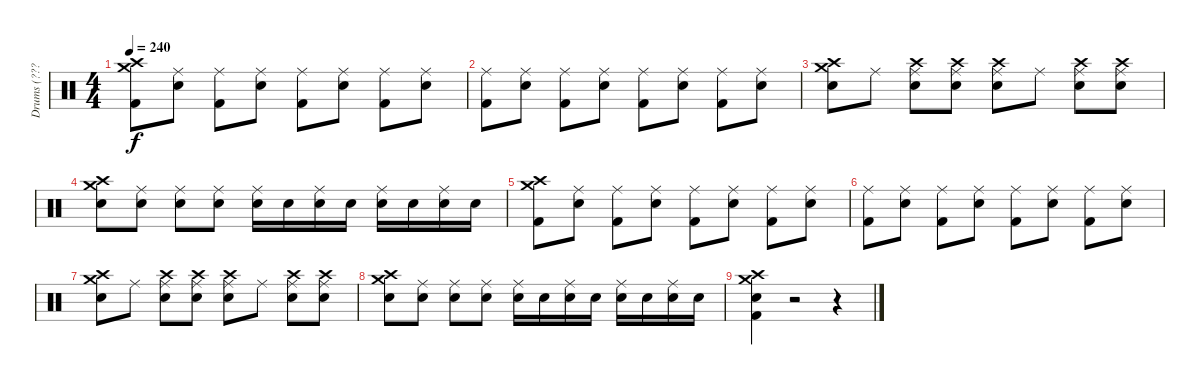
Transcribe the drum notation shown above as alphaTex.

\track ("Drums (????)" "Drums (???") {instrument percussion}
\staff {score}
\articulation defaults
\ts (4 4)
\tempo 240
\clef neutral
\ks c
("Crash medium (hit)" "Crash high (hit)" "Kick (hit) 2").8{dy f} ("Ride (middle)" "Snare (hit) 2").8 ("Ride (middle)" "Kick (hit) 2").8 ("Ride (middle)" "Snare (hit) 2").8 ("Ride (middle)" "Kick (hit) 2").8 ("Ride (middle)" "Snare (hit) 2").8 ("Ride (middle)" "Kick (hit) 2").8 ("Ride (middle)" "Snare (hit) 2").8 |
("Ride (middle)" "Kick (hit) 2").8 ("Ride (middle)" "Snare (hit) 2").8 ("Ride (middle)" "Kick (hit) 2").8 ("Ride (middle)" "Snare (hit) 2").8 ("Ride (middle)" "Kick (hit) 2").8 ("Ride (middle)" "Snare (hit) 2").8 ("Ride (middle)" "Kick (hit) 2").8 ("Ride (middle)" "Snare (hit) 2").8 |
("Crash medium (hit)" "Crash high (hit)" "Snare (hit) 2").8 "Ride (middle)".8 ("Ride (middle)" "Crash high (hit)" "Snare (hit) 2").8 ("Ride (middle)" "Crash high (hit)" "Snare (hit) 2").8 ("Ride (middle)" "Crash high (hit)" "Snare (hit) 2").8 "Ride (middle)".8 ("Ride (middle)" "Crash high (hit)" "Snare (hit) 2").8 ("Ride (middle)" "Crash high (hit)" "Snare (hit) 2").8 |
("Crash medium (hit)" "Crash high (hit)" "Snare (hit) 2").8 ("Ride (middle)" "Snare (hit) 2").8 ("Ride (middle)" "Snare (hit) 2").8 ("Ride (middle)" "Snare (hit) 2").8 ("Ride (middle)" "Snare (hit) 2").16 "Snare (hit) 2".16 ("Ride (middle)" "Snare (hit) 2").16 "Snare (hit) 2".16 ("Ride (middle)" "Snare (hit) 2").16 "Snare (hit) 2".16 ("Ride (middle)" "Snare (hit) 2").16 "Snare (hit) 2".16 |
("Crash medium (hit)" "Crash high (hit)" "Kick (hit) 2").8 ("Ride (middle)" "Snare (hit) 2").8 ("Ride (middle)" "Kick (hit) 2").8 ("Ride (middle)" "Snare (hit) 2").8 ("Ride (middle)" "Kick (hit) 2").8 ("Ride (middle)" "Snare (hit) 2").8 ("Ride (middle)" "Kick (hit) 2").8 ("Ride (middle)" "Snare (hit) 2").8 |
("Ride (middle)" "Kick (hit) 2").8 ("Ride (middle)" "Snare (hit) 2").8 ("Ride (middle)" "Kick (hit) 2").8 ("Ride (middle)" "Snare (hit) 2").8 ("Ride (middle)" "Kick (hit) 2").8 ("Ride (middle)" "Snare (hit) 2").8 ("Ride (middle)" "Kick (hit) 2").8 ("Ride (middle)" "Snare (hit) 2").8 |
("Crash medium (hit)" "Crash high (hit)" "Snare (hit) 2").8 "Ride (middle)".8 ("Ride (middle)" "Crash high (hit)" "Snare (hit) 2").8 ("Ride (middle)" "Crash high (hit)" "Snare (hit) 2").8 ("Ride (middle)" "Crash high (hit)" "Snare (hit) 2").8 "Ride (middle)".8 ("Ride (middle)" "Crash high (hit)" "Snare (hit) 2").8 ("Ride (middle)" "Crash high (hit)" "Snare (hit) 2").8 |
("Crash medium (hit)" "Crash high (hit)" "Snare (hit) 2").8 ("Ride (middle)" "Snare (hit) 2").8 ("Ride (middle)" "Snare (hit) 2").8 ("Ride (middle)" "Snare (hit) 2").8 ("Ride (middle)" "Snare (hit) 2").16 "Snare (hit) 2".16 ("Ride (middle)" "Snare (hit) 2").16 "Snare (hit) 2".16 ("Ride (middle)" "Snare (hit) 2").16 "Snare (hit) 2".16 ("Ride (middle)" "Snare (hit) 2").16 "Snare (hit) 2".16 |
("Kick (hit) 2" "Snare (hit) 2" "Crash high (hit)" "Crash medium (hit)").4 r.2 r.4
